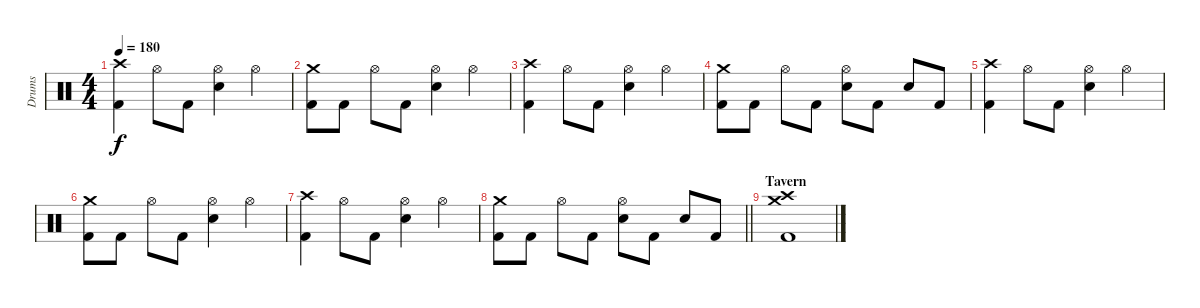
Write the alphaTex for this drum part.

\track ("Drums" "Drums") {instrument percussion}
\staff {score}
\articulation defaults
\ts (4 4)
\tempo 180
\clef neutral
\ks c
("Crash high (hit)" "Kick (hit) 2").4{dy f} "Hi-Hat (open)".8 "Kick (hit) 2".8 ("Hi-Hat (open)" "Snare (hit) 2").4 "Hi-Hat (open)".4 |
("Crash medium (hit)" "Kick (hit) 2").8 "Kick (hit) 2".8 "Hi-Hat (open)".8 "Kick (hit) 2".8 ("Hi-Hat (open)" "Snare (hit) 2").4 "Hi-Hat (open)".4 |
("Crash high (hit)" "Kick (hit) 2").4 "Hi-Hat (open)".8 "Kick (hit) 2".8 ("Hi-Hat (open)" "Snare (hit) 2").4 "Hi-Hat (open)".4 |
("Crash medium (hit)" "Kick (hit) 2").8 "Kick (hit) 2".8 "Hi-Hat (open)".8 "Kick (hit) 2".8 ("Hi-Hat (open)" "Snare (hit) 2").8 "Kick (hit) 2".8 "Snare (hit) 2".8 "Kick (hit) 2".8 |
("Crash high (hit)" "Kick (hit) 2").4 "Hi-Hat (open)".8 "Kick (hit) 2".8 ("Hi-Hat (open)" "Snare (hit) 2").4 "Hi-Hat (open)".4 |
("Crash medium (hit)" "Kick (hit) 2").8 "Kick (hit) 2".8 "Hi-Hat (open)".8 "Kick (hit) 2".8 ("Hi-Hat (open)" "Snare (hit) 2").4 "Hi-Hat (open)".4 |
("Crash high (hit)" "Kick (hit) 2").4 "Hi-Hat (open)".8 "Kick (hit) 2".8 ("Hi-Hat (open)" "Snare (hit) 2").4 "Hi-Hat (open)".4 |
\barLineRight lightlight
("Crash medium (hit)" "Kick (hit) 2").8 "Kick (hit) 2".8 "Hi-Hat (open)".8 "Kick (hit) 2".8 ("Hi-Hat (open)" "Snare (hit) 2").8 "Kick (hit) 2".8 "Snare (hit) 2".8 "Kick (hit) 2".8 |
\section ("" "Tavern")
("Crash high (hit)" "Crash medium (hit)" "Kick (hit) 2").1
